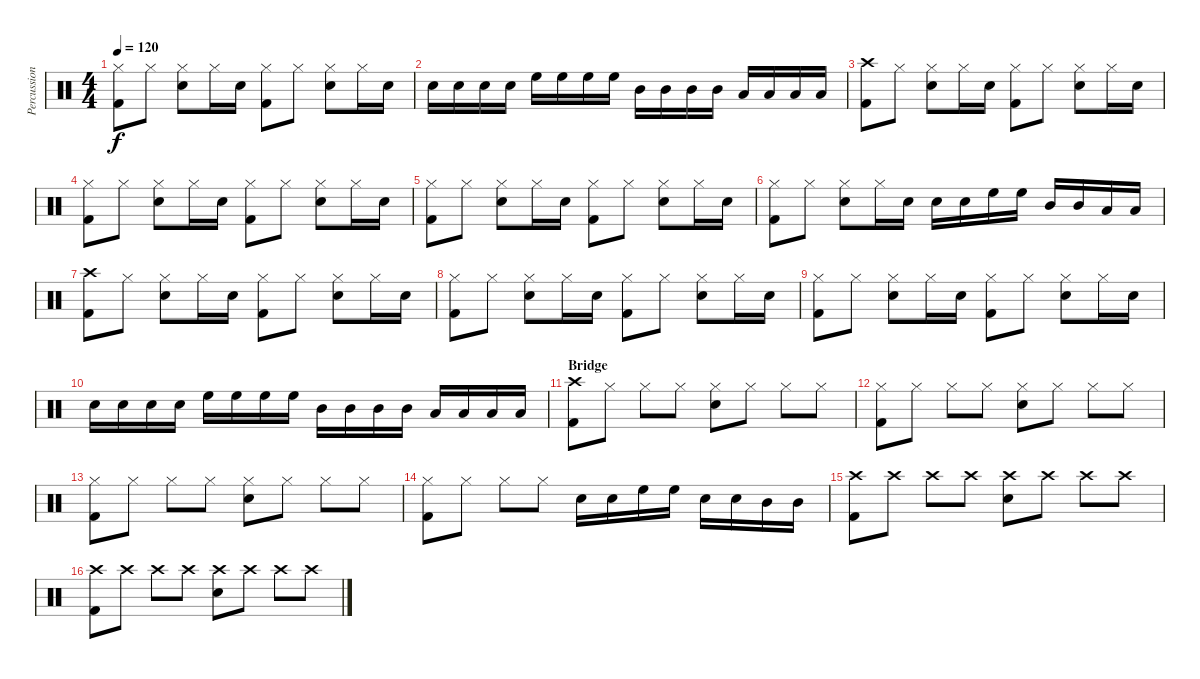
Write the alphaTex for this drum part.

\track ("Percussion" "Percussion") {instrument percussion}
\staff {score}
\articulation defaults
\ts (4 4)
\tempo 120
\clef neutral
\ks c
("Hi-Hat (closed)" "Kick (hit) 2").8{dy f} "Hi-Hat (closed)".8 ("Electric Snare (hit)" "Hi-Hat (closed)").8 "Hi-Hat (closed)".16 "Electric Snare (hit)".16 ("Hi-Hat (closed)" "Kick (hit) 2").8 "Hi-Hat (closed)".8 ("Electric Snare (hit)" "Hi-Hat (closed)").8 "Hi-Hat (closed)".16 "Electric Snare (hit)".16 |
"Electric Snare (hit)".16 "Electric Snare (hit)".16 "Electric Snare (hit)".16 "Electric Snare (hit)".16 "High Floor Tom (hit)".16 "High Floor Tom (hit)".16 "High Floor Tom (hit)".16 "High Floor Tom (hit)".16 "Mid Tom (hit)".16 "Mid Tom (hit)".16 "Mid Tom (hit)".16 "Mid Tom (hit)".16 "Low Tom (hit)".16 "Low Tom (hit)".16 "Low Tom (hit)".16 "Low Tom (hit)".16 |
("Crash high (hit)" "Kick (hit) 2").8 "Hi-Hat (closed)".8 ("Electric Snare (hit)" "Hi-Hat (closed)").8 "Hi-Hat (closed)".16 "Electric Snare (hit)".16 ("Hi-Hat (closed)" "Kick (hit) 2").8 "Hi-Hat (closed)".8 ("Electric Snare (hit)" "Hi-Hat (closed)").8 "Hi-Hat (closed)".16 "Electric Snare (hit)".16 |
("Hi-Hat (closed)" "Kick (hit) 2").8 "Hi-Hat (closed)".8 ("Electric Snare (hit)" "Hi-Hat (closed)").8 "Hi-Hat (closed)".16 "Electric Snare (hit)".16 ("Hi-Hat (closed)" "Kick (hit) 2").8 "Hi-Hat (closed)".8 ("Electric Snare (hit)" "Hi-Hat (closed)").8 "Hi-Hat (closed)".16 "Electric Snare (hit)".16 |
("Hi-Hat (closed)" "Kick (hit) 2").8 "Hi-Hat (closed)".8 ("Electric Snare (hit)" "Hi-Hat (closed)").8 "Hi-Hat (closed)".16 "Electric Snare (hit)".16 ("Hi-Hat (closed)" "Kick (hit) 2").8 "Hi-Hat (closed)".8 ("Electric Snare (hit)" "Hi-Hat (closed)").8 "Hi-Hat (closed)".16 "Electric Snare (hit)".16 |
("Hi-Hat (closed)" "Kick (hit) 2").8 "Hi-Hat (closed)".8 ("Electric Snare (hit)" "Hi-Hat (closed)").8 "Hi-Hat (closed)".16 "Electric Snare (hit)".16 "Electric Snare (hit)".16 "Electric Snare (hit)".16 "High Floor Tom (hit)".16 "High Floor Tom (hit)".16 "Mid Tom (hit)".16 "Mid Tom (hit)".16 "Low Tom (hit)".16 "Low Tom (hit)".16 |
("Crash high (hit)" "Kick (hit) 2").8 "Hi-Hat (closed)".8 ("Electric Snare (hit)" "Hi-Hat (closed)").8 "Hi-Hat (closed)".16 "Electric Snare (hit)".16 ("Hi-Hat (closed)" "Kick (hit) 2").8 "Hi-Hat (closed)".8 ("Electric Snare (hit)" "Hi-Hat (closed)").8 "Hi-Hat (closed)".16 "Electric Snare (hit)".16 |
("Hi-Hat (closed)" "Kick (hit) 2").8 "Hi-Hat (closed)".8 ("Electric Snare (hit)" "Hi-Hat (closed)").8 "Hi-Hat (closed)".16 "Electric Snare (hit)".16 ("Hi-Hat (closed)" "Kick (hit) 2").8 "Hi-Hat (closed)".8 ("Electric Snare (hit)" "Hi-Hat (closed)").8 "Hi-Hat (closed)".16 "Electric Snare (hit)".16 |
("Hi-Hat (closed)" "Kick (hit) 2").8 "Hi-Hat (closed)".8 ("Electric Snare (hit)" "Hi-Hat (closed)").8 "Hi-Hat (closed)".16 "Electric Snare (hit)".16 ("Hi-Hat (closed)" "Kick (hit) 2").8 "Hi-Hat (closed)".8 ("Electric Snare (hit)" "Hi-Hat (closed)").8 "Hi-Hat (closed)".16 "Electric Snare (hit)".16 |
"Electric Snare (hit)".16 "Electric Snare (hit)".16 "Electric Snare (hit)".16 "Electric Snare (hit)".16 "High Floor Tom (hit)".16 "High Floor Tom (hit)".16 "High Floor Tom (hit)".16 "High Floor Tom (hit)".16 "Mid Tom (hit)".16 "Mid Tom (hit)".16 "Mid Tom (hit)".16 "Mid Tom (hit)".16 "Low Tom (hit)".16 "Low Tom (hit)".16 "Low Tom (hit)".16 "Low Tom (hit)".16 |
\section ("" "Bridge")
("Crash high (hit)" "Kick (hit) 2").8 "Hi-Hat (closed)".8 "Hi-Hat (closed)".8 "Hi-Hat (closed)".8 ("Hi-Hat (closed)" "Electric Snare (hit)").8 "Hi-Hat (closed)".8 "Hi-Hat (closed)".8 "Hi-Hat (closed)".8 |
("Hi-Hat (closed)" "Kick (hit) 2").8 "Hi-Hat (closed)".8 "Hi-Hat (closed)".8 "Hi-Hat (closed)".8 ("Hi-Hat (closed)" "Electric Snare (hit)").8 "Hi-Hat (closed)".8 "Hi-Hat (closed)".8 "Hi-Hat (closed)".8 |
("Hi-Hat (closed)" "Kick (hit) 2").8 "Hi-Hat (closed)".8 "Hi-Hat (closed)".8 "Hi-Hat (closed)".8 ("Hi-Hat (closed)" "Electric Snare (hit)").8 "Hi-Hat (closed)".8 "Hi-Hat (closed)".8 "Hi-Hat (closed)".8 |
("Hi-Hat (closed)" "Kick (hit) 2").8 "Hi-Hat (closed)".8 "Hi-Hat (closed)".8 "Hi-Hat (closed)".8 "Electric Snare (hit)".16 "Electric Snare (hit)".16 "High Floor Tom (hit)".16 "High Floor Tom (hit)".16 "Electric Snare (hit)".16 "Electric Snare (hit)".16 "Mid Tom (hit)".16 "Mid Tom (hit)".16 |
("Crash high (hit)" "Kick (hit) 2").8 "Crash high (hit)".8 "Crash high (hit)".8 "Crash high (hit)".8 ("Crash high (hit)" "Electric Snare (hit)").8 "Crash high (hit)".8 "Crash high (hit)".8 "Crash high (hit)".8 |
("Crash high (hit)" "Kick (hit) 2").8 "Crash high (hit)".8 "Crash high (hit)".8 "Crash high (hit)".8 ("Crash high (hit)" "Electric Snare (hit)").8 "Crash high (hit)".8 "Crash high (hit)".8 "Crash high (hit)".8
